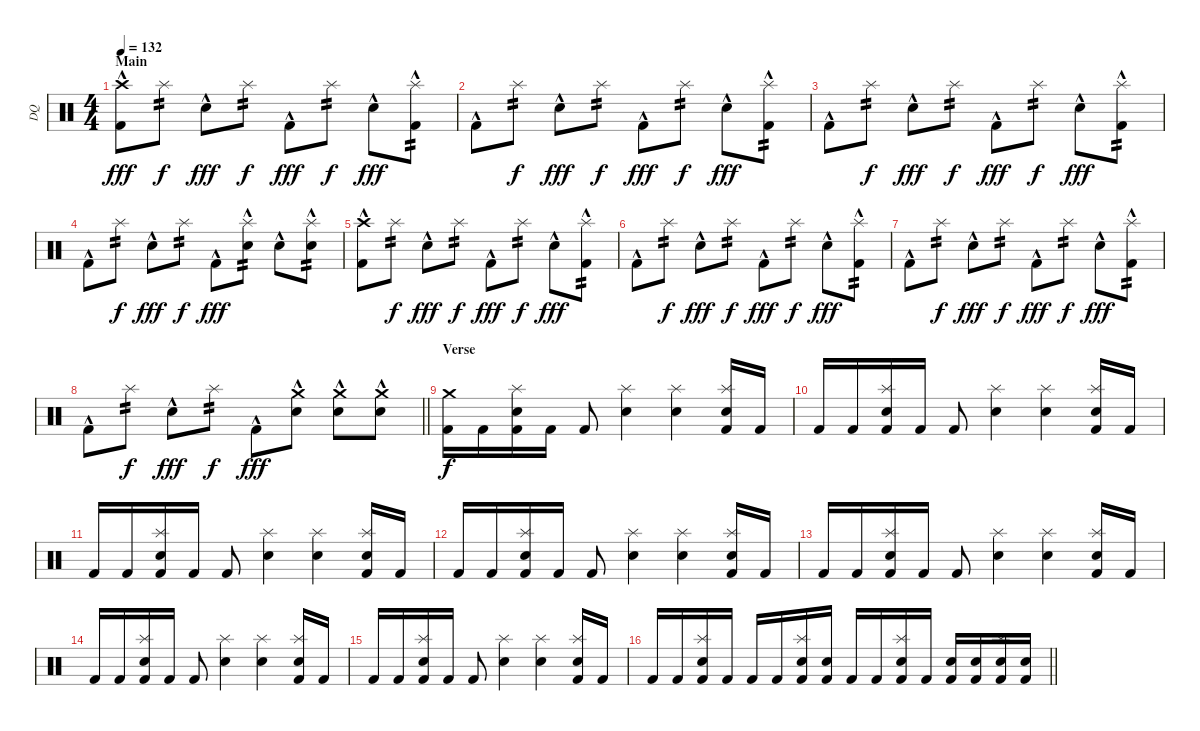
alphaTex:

\track ("DQ" "DQ") {instrument percussion}
\staff {score}
\articulation defaults
\ts (4 4)
\section ("" "Main")
\tempo 132
\clef neutral
\ks c
("Kick (hit) 2"{hac} "Crash high (hit)").8{dy fff} "Splash (hit)".8{tp 2 dy f} "Snare (hit) 2"{hac}.8{dy fff} "Splash (hit)".8{tp 2 dy f} "Kick (hit) 2"{hac}.8{dy fff} "Splash (hit)".8{tp 2 dy f} "Snare (hit) 2"{hac}.8{dy fff} ("Kick (hit) 2"{hac} "Splash (hit)").8{tp 2} |
"Kick (hit) 2"{hac}.8 "Splash (hit)".8{tp 2 dy f} "Snare (hit) 2"{hac}.8{dy fff} "Splash (hit)".8{tp 2 dy f} "Kick (hit) 2"{hac}.8{dy fff} "Splash (hit)".8{tp 2 dy f} "Snare (hit) 2"{hac}.8{dy fff} ("Kick (hit) 2"{hac} "Splash (hit)").8{tp 2} |
"Kick (hit) 2"{hac}.8 "Splash (hit)".8{tp 2 dy f} "Snare (hit) 2"{hac}.8{dy fff} "Splash (hit)".8{tp 2 dy f} "Kick (hit) 2"{hac}.8{dy fff} "Splash (hit)".8{tp 2 dy f} "Snare (hit) 2"{hac}.8{dy fff} ("Kick (hit) 2"{hac} "Splash (hit)").8{tp 2} |
"Kick (hit) 2"{hac}.8 "Splash (hit)".8{tp 2 dy f} "Snare (hit) 2"{hac}.8{dy fff} "Splash (hit)".8{tp 2 dy f} "Kick (hit) 2"{hac}.8{dy fff} ("Snare (hit) 2"{hac} "Splash (hit)").8{tp 2} "Snare (hit) 2"{hac}.8 ("Snare (hit) 2"{hac} "Splash (hit)").8{tp 2} |
("Kick (hit) 2"{hac} "Crash high (hit)").8 "Splash (hit)".8{tp 2 dy f} "Snare (hit) 2"{hac}.8{dy fff} "Splash (hit)".8{tp 2 dy f} "Kick (hit) 2"{hac}.8{dy fff} "Splash (hit)".8{tp 2 dy f} "Snare (hit) 2"{hac}.8{dy fff} ("Kick (hit) 2"{hac} "Splash (hit)").8{tp 2} |
"Kick (hit) 2"{hac}.8 "Splash (hit)".8{tp 2 dy f} "Snare (hit) 2"{hac}.8{dy fff} "Splash (hit)".8{tp 2 dy f} "Kick (hit) 2"{hac}.8{dy fff} "Splash (hit)".8{tp 2 dy f} "Snare (hit) 2"{hac}.8{dy fff} ("Kick (hit) 2"{hac} "Splash (hit)").8{tp 2} |
"Kick (hit) 2"{hac}.8 "Splash (hit)".8{tp 2 dy f} "Snare (hit) 2"{hac}.8{dy fff} "Splash (hit)".8{tp 2 dy f} "Kick (hit) 2"{hac}.8{dy fff} "Splash (hit)".8{tp 2 dy f} "Snare (hit) 2"{hac}.8{dy fff} ("Kick (hit) 2"{hac} "Splash (hit)").8{tp 2} |
\barLineRight lightlight "Kick (hit) 2"{hac}.8 "Splash (hit)".8{tp 2 dy f} "Snare (hit) 2"{hac}.8{dy fff} "Splash (hit)".8{tp 2 dy f} "Kick (hit) 2"{hac}.8{dy fff}
("Snare (hit) 2"{hac} "Crash medium (hit)").8 ("Snare (hit) 2"{hac} "Crash medium (hit)").8 ("Snare (hit) 2"{hac} "Crash medium (hit)").8 |
\section ("" "Verse")
("Kick (hit) 2" "Crash medium (hit)").16{dy f} "Kick (hit) 2".16 ("Kick (hit) 2" "Snare (hit) 2" "Splash (hit)").16 "Kick (hit) 2".16 "Kick (hit) 2".8 ("Snare (hit) 2" "Splash (hit)").4 ("Snare (hit) 2" "Splash (hit)").4 ("Kick (hit) 2" "Snare (hit) 2" "Splash (hit)").16 "Kick (hit) 2".16 |
"Kick (hit) 2".16 "Kick (hit) 2".16 ("Kick (hit) 2" "Snare (hit) 2" "Splash (hit)").16 "Kick (hit) 2".16 "Kick (hit) 2".8 ("Snare (hit) 2" "Splash (hit)").4 ("Snare (hit) 2" "Splash (hit)").4 ("Kick (hit) 2" "Snare (hit) 2" "Splash (hit)").16 "Kick (hit) 2".16 |
"Kick (hit) 2".16 "Kick (hit) 2".16 ("Kick (hit) 2" "Snare (hit) 2" "Splash (hit)").16 "Kick (hit) 2".16 "Kick (hit) 2".8 ("Snare (hit) 2" "Splash (hit)").4 ("Snare (hit) 2" "Splash (hit)").4 ("Kick (hit) 2" "Snare (hit) 2" "Splash (hit)").16 "Kick (hit) 2".16 |
"Kick (hit) 2".16 "Kick (hit) 2".16 ("Kick (hit) 2" "Snare (hit) 2" "Splash (hit)").16 "Kick (hit) 2".16 "Kick (hit) 2".8 ("Snare (hit) 2" "Splash (hit)").4 ("Snare (hit) 2" "Splash (hit)").4 ("Kick (hit) 2" "Snare (hit) 2" "Splash (hit)").16 "Kick (hit) 2".16 |
"Kick (hit) 2".16 "Kick (hit) 2".16 ("Kick (hit) 2" "Snare (hit) 2" "Splash (hit)").16 "Kick (hit) 2".16 "Kick (hit) 2".8 ("Snare (hit) 2" "Splash (hit)").4 ("Snare (hit) 2" "Splash (hit)").4 ("Kick (hit) 2" "Snare (hit) 2" "Splash (hit)").16 "Kick (hit) 2".16 |
"Kick (hit) 2".16 "Kick (hit) 2".16 ("Kick (hit) 2" "Snare (hit) 2" "Splash (hit)").16 "Kick (hit) 2".16 "Kick (hit) 2".8 ("Snare (hit) 2" "Splash (hit)").4 ("Snare (hit) 2" "Splash (hit)").4 ("Kick (hit) 2" "Snare (hit) 2" "Splash (hit)").16 "Kick (hit) 2".16 |
"Kick (hit) 2".16 "Kick (hit) 2".16 ("Kick (hit) 2" "Snare (hit) 2" "Splash (hit)").16 "Kick (hit) 2".16 "Kick (hit) 2".8 ("Snare (hit) 2" "Splash (hit)").4 ("Snare (hit) 2" "Splash (hit)").4 ("Kick (hit) 2" "Snare (hit) 2" "Splash (hit)").16 "Kick (hit) 2".16 |
\barLineRight lightlight "Kick (hit) 2".16 "Kick (hit) 2".16
("Kick (hit) 2" "Snare (hit) 2" "Splash (hit)").16 "Kick (hit) 2".16 "Kick (hit) 2".16 "Kick (hit) 2".16 ("Kick (hit) 2" "Snare (hit) 2" "Splash (hit)").16 ("Kick (hit) 2" "Snare (hit) 2").16 "Kick (hit) 2".16 "Kick (hit) 2".16 ("Kick (hit) 2" "Snare (hit) 2" "Splash (hit)").16 "Kick (hit) 2".16 ("Kick (hit) 2" "Snare (hit) 2").16 ("Kick (hit) 2" "Snare (hit) 2").16 ("Kick (hit) 2" "Snare (hit) 2" "Splash (hit)").16 ("Kick (hit) 2" "Snare (hit) 2").16
